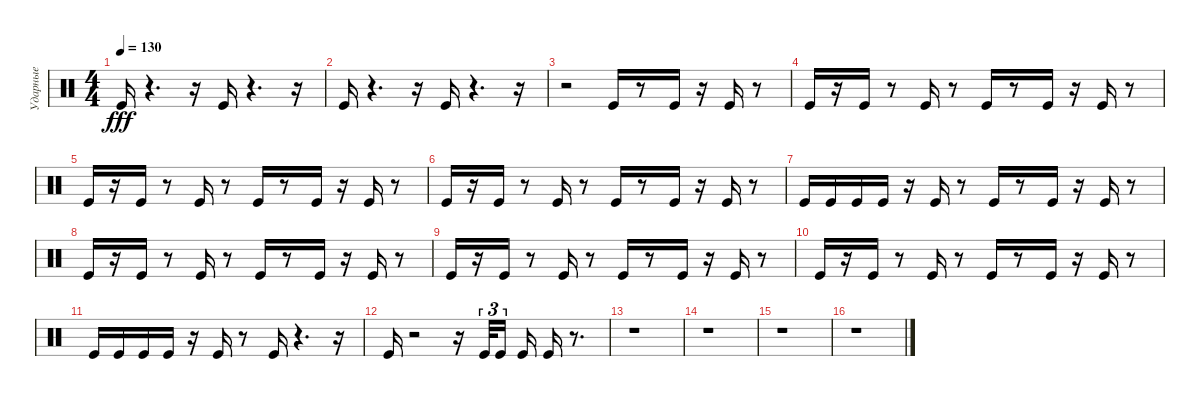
\track ("Ударные" "Ударные") {instrument percussion}
\staff {score}
\articulation defaults
\ts (4 4)
\tempo 130
\clef neutral
\ks c "Kick (hit)".16{dy fff}
r.4{d} r.16 "Kick (hit)".16 r.4{d} r.16 |
"Kick (hit)".16 r.4{d} r.16 "Kick (hit)".16 r.4{d} r.16 |
r.2 "Kick (hit)".16 r.8 "Kick (hit)".16 r.16 "Kick (hit)".16 r.8 |
"Kick (hit)".16 r.16 "Kick (hit)".16 r.8 "Kick (hit)".16 r.8 "Kick (hit)".16 r.8 "Kick (hit)".16 r.16 "Kick (hit)".16 r.8 |
"Kick (hit)".16 r.16 "Kick (hit)".16 r.8 "Kick (hit)".16 r.8 "Kick (hit)".16 r.8 "Kick (hit)".16 r.16 "Kick (hit)".16 r.8 |
"Kick (hit)".16 r.16 "Kick (hit)".16 r.8 "Kick (hit)".16 r.8 "Kick (hit)".16 r.8 "Kick (hit)".16 r.16 "Kick (hit)".16 r.8 |
"Kick (hit)".16 "Kick (hit)".16 "Kick (hit)".16 "Kick (hit)".16 r.16 "Kick (hit)".16 r.8 "Kick (hit)".16 r.8 "Kick (hit)".16 r.16 "Kick (hit)".16 r.8 |
"Kick (hit)".16 r.16 "Kick (hit)".16 r.8 "Kick (hit)".16 r.8 "Kick (hit)".16 r.8 "Kick (hit)".16 r.16 "Kick (hit)".16 r.8 |
"Kick (hit)".16 r.16 "Kick (hit)".16 r.8 "Kick (hit)".16 r.8 "Kick (hit)".16 r.8 "Kick (hit)".16 r.16 "Kick (hit)".16 r.8 |
"Kick (hit)".16 r.16 "Kick (hit)".16 r.8 "Kick (hit)".16 r.8 "Kick (hit)".16 r.8 "Kick (hit)".16 r.16 "Kick (hit)".16 r.8 |
"Kick (hit)".16 "Kick (hit)".16 "Kick (hit)".16 "Kick (hit)".16 r.16 "Kick (hit)".16 r.8 "Kick (hit)".16 r.4{d} r.16 |
"Kick (hit)".16 r.2 r.16 "Kick (hit)".32{tu (3 2)} "Kick (hit)".16{tu (3 2) beam splitsecondary} "Kick (hit)".16 "Kick (hit)".16 r.8{d} |
r.1 |
r.1 |
r.1 |
r.1
